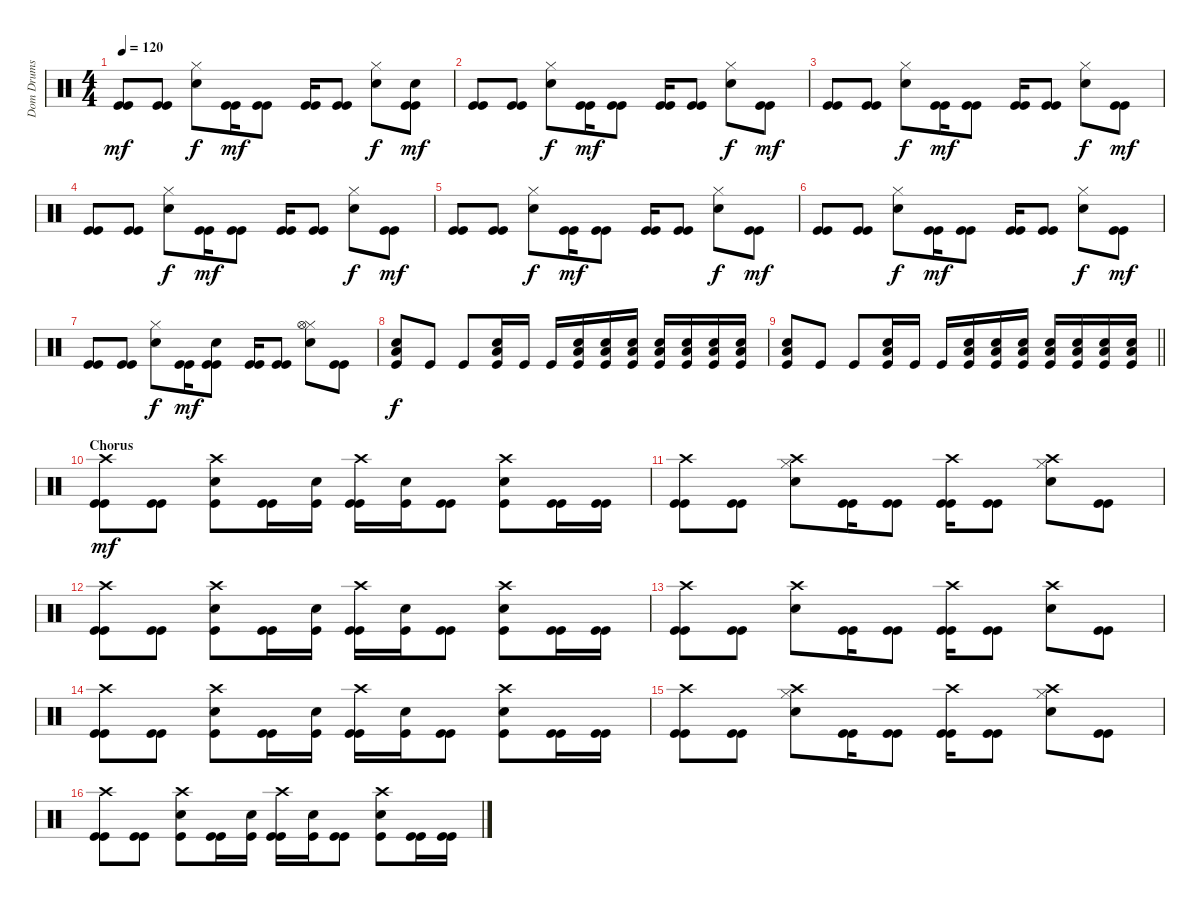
\track ("Dom Drums" "Dom Drums") {instrument percussion}
\staff {score}
\articulation defaults
\ts (4 4)
\tempo 120
\clef neutral
\ks c
("Kick (hit)" "Kick (hit)").8{dy mf} ("Kick (hit)" "Kick (hit)").8 ("Electric Snare (hit)" "Hi-Hat (closed)").8{dy f} ("Kick (hit)" "Kick (hit)").16{dy mf} ("Kick (hit)" "Kick (hit)").8 ("Kick (hit)" "Kick (hit)").16 ("Kick (hit)" "Kick (hit)").8 ("Electric Snare (hit)" "Hi-Hat (closed)").8{dy f} ("Kick (hit)" "Kick (hit)" "Snare (hit)"{t}).8{dy mf} |
("Kick (hit)" "Kick (hit)").8 ("Kick (hit)" "Kick (hit)").8 ("Electric Snare (hit)" "Hi-Hat (closed)").8{dy f} ("Kick (hit)" "Kick (hit)").16{dy mf} ("Kick (hit)" "Kick (hit)").8 ("Kick (hit)" "Kick (hit)").16 ("Kick (hit)" "Kick (hit)").8 ("Electric Snare (hit)" "Hi-Hat (closed)").8{dy f} ("Kick (hit)" "Kick (hit)").8{dy mf} |
("Kick (hit)" "Kick (hit)").8 ("Kick (hit)" "Kick (hit)").8 ("Electric Snare (hit)" "Hi-Hat (closed)").8{dy f} ("Kick (hit)" "Kick (hit)").16{dy mf} ("Kick (hit)" "Kick (hit)").8 ("Kick (hit)" "Kick (hit)").16 ("Kick (hit)" "Kick (hit)").8 ("Electric Snare (hit)" "Hi-Hat (closed)").8{dy f} ("Kick (hit)" "Kick (hit)").8{dy mf} |
("Kick (hit)" "Kick (hit)").8 ("Kick (hit)" "Kick (hit)").8 ("Electric Snare (hit)" "Hi-Hat (closed)").8{dy f} ("Kick (hit)" "Kick (hit)").16{dy mf} ("Kick (hit)" "Kick (hit)").8 ("Kick (hit)" "Kick (hit)").16 ("Kick (hit)" "Kick (hit)").8 ("Electric Snare (hit)" "Hi-Hat (closed)").8{dy f} ("Kick (hit)" "Kick (hit)").8{dy mf} |
("Kick (hit)" "Kick (hit)").8 ("Kick (hit)" "Kick (hit)").8 ("Electric Snare (hit)" "Hi-Hat (closed)").8{dy f} ("Kick (hit)" "Kick (hit)").16{dy mf} ("Kick (hit)" "Kick (hit)").8 ("Kick (hit)" "Kick (hit)").16 ("Kick (hit)" "Kick (hit)").8 ("Electric Snare (hit)" "Hi-Hat (closed)").8{dy f} ("Kick (hit)" "Kick (hit)").8{dy mf} |
("Kick (hit)" "Kick (hit)").8 ("Kick (hit)" "Kick (hit)").8 ("Electric Snare (hit)" "Hi-Hat (closed)").8{dy f} ("Kick (hit)" "Kick (hit)").16{dy mf} ("Kick (hit)" "Kick (hit)").8 ("Kick (hit)" "Kick (hit)").16 ("Kick (hit)" "Kick (hit)").8 ("Electric Snare (hit)" "Hi-Hat (closed)").8{dy f} ("Kick (hit)" "Kick (hit)").8{dy mf} |
("Kick (hit)" "Kick (hit)").8 ("Kick (hit)" "Kick (hit)").8 ("Electric Snare (hit)" "Hi-Hat (closed)").8{dy f} ("Kick (hit)" "Kick (hit)").16{dy mf} ("Kick (hit)" "Kick (hit)" "Electric Snare (hit)").8 ("Kick (hit)" "Kick (hit)").16 ("Kick (hit)" "Kick (hit)").8 ("Electric Snare (hit)" "Hi-Hat (closed)" "Hi-Hat (open)").8 ("Kick (hit)" "Kick (hit)").8 |
("Kick (hit)" "Low Floor Tom (hit)" "Hand Clap (hit)").8{dy f} "Kick (hit)".8 "Kick (hit)".8 ("Kick (hit)" "Low Floor Tom (hit)" "Hand Clap (hit)").16 "Kick (hit)".16 "Kick (hit)".16 ("Kick (hit)" "Low Floor Tom (hit)" "Hand Clap (hit)").16 ("Kick (hit)" "Low Floor Tom (hit)" "Hand Clap (hit)").16 ("Kick (hit)" "Low Floor Tom (hit)" "Hand Clap (hit)").16 ("Kick (hit)" "Low Floor Tom (hit)" "Hand Clap (hit)").16 ("Kick (hit)" "Low Floor Tom (hit)" "Hand Clap (hit)").16 ("Kick (hit)" "Low Floor Tom (hit)" "Hand Clap (hit)").16 ("Kick (hit)" "Low Floor Tom (hit)" "Hand Clap (hit)").16 |
\barLineRight lightlight
("Kick (hit)" "Low Floor Tom (hit)" "Hand Clap (hit)").8 "Kick (hit)".8 "Kick (hit)".8 ("Kick (hit)" "Low Floor Tom (hit)" "Hand Clap (hit)").16 "Kick (hit)".16 "Kick (hit)".16 ("Kick (hit)" "Low Floor Tom (hit)" "Hand Clap (hit)").16 ("Kick (hit)" "Low Floor Tom (hit)" "Hand Clap (hit)").16 ("Kick (hit)" "Low Floor Tom (hit)" "Hand Clap (hit)").16 ("Kick (hit)" "Low Floor Tom (hit)" "Hand Clap (hit)").16 ("Kick (hit)" "Low Floor Tom (hit)" "Hand Clap (hit)").16 ("Kick (hit)" "Low Floor Tom (hit)" "Hand Clap (hit)").16 ("Kick (hit)" "Low Floor Tom (hit)" "Hand Clap (hit)").16 |
\section ("" "Chorus")
("Crash high (hit)" "Kick (hit)" "Kick (hit)").8{dy mf} ("Kick (hit)" "Kick (hit)").8 ("Crash high (hit)" "Kick (hit)" "Electric Snare (hit)").8 ("Kick (hit)" "Kick (hit)").16 ("Kick (hit)" "Electric Snare (hit)").16 ("Crash high (hit)" "Kick (hit)" "Kick (hit)").16 ("Kick (hit)" "Electric Snare (hit)").16 ("Kick (hit)" "Kick (hit)").8 ("Crash high (hit)" "Kick (hit)" "Electric Snare (hit)").8 ("Kick (hit)" "Kick (hit)").16 ("Kick (hit)" "Kick (hit)").16 |
("Kick (hit)" "Kick (hit)" "Crash high (hit)").8 ("Kick (hit)" "Kick (hit)").8 ("Electric Snare (hit)" "Hi-Hat (closed)" "Crash high (hit)").8 ("Kick (hit)" "Kick (hit)").16 ("Kick (hit)" "Kick (hit)").8 ("Kick (hit)" "Kick (hit)" "Crash high (hit)").16 ("Kick (hit)" "Kick (hit)").8 ("Electric Snare (hit)" "Hi-Hat (closed)" "Crash high (hit)").8 ("Kick (hit)" "Kick (hit)").8 |
("Kick (hit)" "Kick (hit)" "Crash high (hit)").8 ("Kick (hit)" "Kick (hit)").8 ("Kick (hit)" "Electric Snare (hit)" "Crash high (hit)").8 ("Kick (hit)" "Kick (hit)").16 ("Kick (hit)" "Electric Snare (hit)").16 ("Kick (hit)" "Kick (hit)" "Crash high (hit)").16 ("Kick (hit)" "Electric Snare (hit)").16 ("Kick (hit)" "Kick (hit)").8 ("Kick (hit)" "Electric Snare (hit)" "Crash high (hit)").8 ("Kick (hit)" "Kick (hit)").16 ("Kick (hit)" "Kick (hit)").16 |
("Kick (hit)" "Kick (hit)" "Crash high (hit)").8 ("Kick (hit)" "Kick (hit)").8 ("Electric Snare (hit)" "Crash high (hit)").8 ("Kick (hit)" "Kick (hit)").16 ("Kick (hit)" "Kick (hit)").8 ("Kick (hit)" "Kick (hit)" "Crash high (hit)").16 ("Kick (hit)" "Kick (hit)").8 ("Electric Snare (hit)" "Crash high (hit)").8 ("Kick (hit)" "Kick (hit)").8 |
("Crash high (hit)" "Kick (hit)" "Kick (hit)").8 ("Kick (hit)" "Kick (hit)").8 ("Crash high (hit)" "Kick (hit)" "Electric Snare (hit)").8 ("Kick (hit)" "Kick (hit)").16 ("Kick (hit)" "Electric Snare (hit)").16 ("Crash high (hit)" "Kick (hit)" "Kick (hit)").16 ("Kick (hit)" "Electric Snare (hit)").16 ("Kick (hit)" "Kick (hit)").8 ("Crash high (hit)" "Kick (hit)" "Electric Snare (hit)").8 ("Kick (hit)" "Kick (hit)").16 ("Kick (hit)" "Kick (hit)").16 |
("Kick (hit)" "Kick (hit)" "Crash high (hit)").8 ("Kick (hit)" "Kick (hit)").8 ("Electric Snare (hit)" "Hi-Hat (closed)" "Crash high (hit)").8 ("Kick (hit)" "Kick (hit)").16 ("Kick (hit)" "Kick (hit)").8 ("Kick (hit)" "Kick (hit)" "Crash high (hit)").16 ("Kick (hit)" "Kick (hit)").8 ("Electric Snare (hit)" "Hi-Hat (closed)" "Crash high (hit)").8 ("Kick (hit)" "Kick (hit)").8 |
("Kick (hit)" "Kick (hit)" "Crash high (hit)").8 ("Kick (hit)" "Kick (hit)").8 ("Kick (hit)" "Electric Snare (hit)" "Crash high (hit)").8 ("Kick (hit)" "Kick (hit)").16 ("Kick (hit)" "Electric Snare (hit)").16 ("Kick (hit)" "Kick (hit)" "Crash high (hit)").16 ("Kick (hit)" "Electric Snare (hit)").16 ("Kick (hit)" "Kick (hit)").8 ("Kick (hit)" "Electric Snare (hit)" "Crash high (hit)").8 ("Kick (hit)" "Kick (hit)").16 ("Kick (hit)" "Kick (hit)").16
